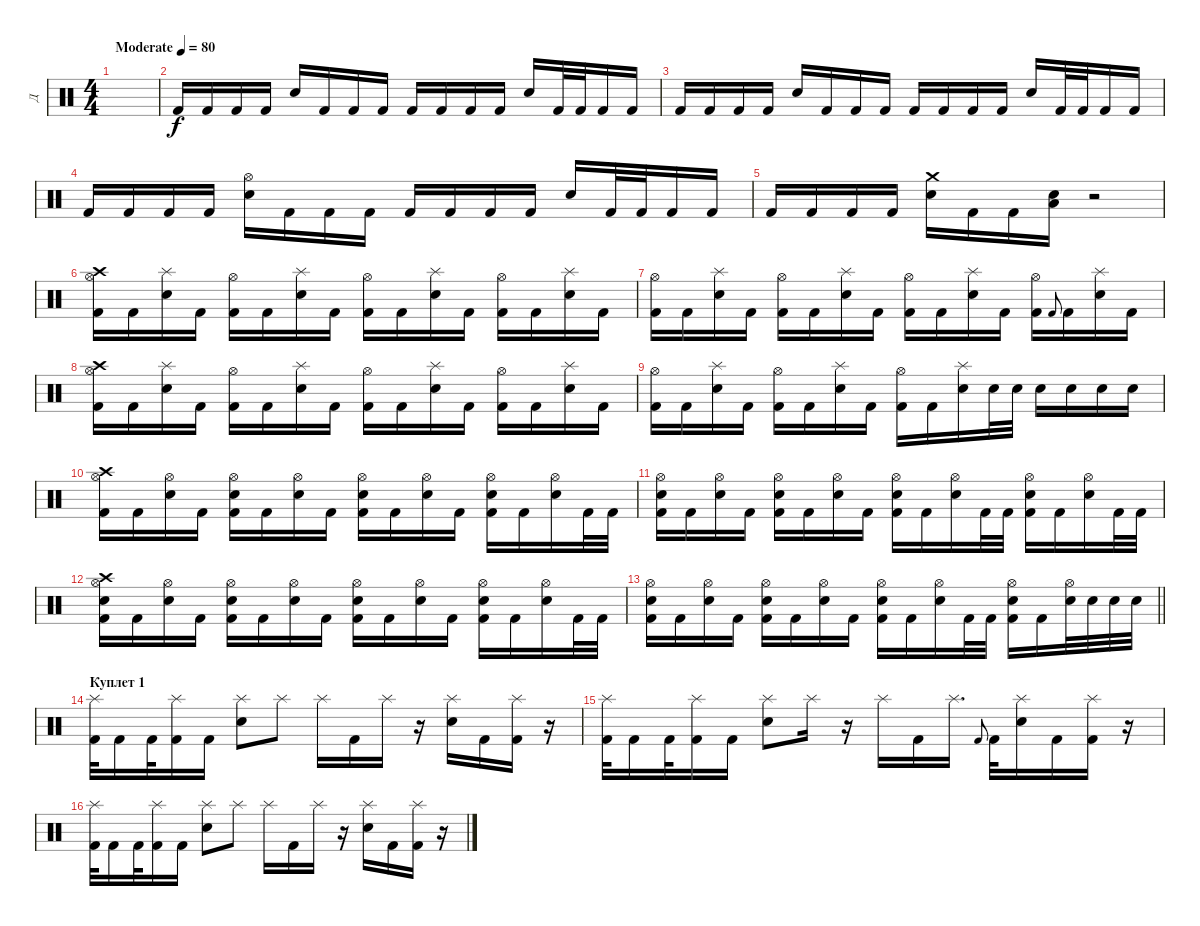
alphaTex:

\track ("Д" "Д") {instrument percussion}
\staff {score}
\articulation defaults
\ts (4 4)
\tempo (80 "Moderate")
\clef neutral
\ks c
|
"Kick (hit) 2".16 "Kick (hit) 2".16 "Kick (hit) 2".16 "Kick (hit) 2".16 "Electric Snare (hit)".16 "Kick (hit) 2".16 "Kick (hit) 2".16 "Kick (hit) 2".16 "Kick (hit) 2".16 "Kick (hit) 2".16 "Kick (hit) 2".16 "Kick (hit) 2".16 "Electric Snare (hit)".16 "Kick (hit) 2".32 "Kick (hit) 2".32 "Kick (hit) 2".16 "Kick (hit) 2".16 |
"Kick (hit) 2".16 "Kick (hit) 2".16 "Kick (hit) 2".16 "Kick (hit) 2".16 "Electric Snare (hit)".16 "Kick (hit) 2".16 "Kick (hit) 2".16 "Kick (hit) 2".16 "Kick (hit) 2".16 "Kick (hit) 2".16 "Kick (hit) 2".16 "Kick (hit) 2".16 "Electric Snare (hit)".16 "Kick (hit) 2".32 "Kick (hit) 2".32 "Kick (hit) 2".16 "Kick (hit) 2".16 |
"Kick (hit) 2".16 "Kick (hit) 2".16 "Kick (hit) 2".16 "Kick (hit) 2".16 ("Hi-Hat (open)" "Electric Snare (hit)").16 "Kick (hit) 2".16 "Kick (hit) 2".16 "Kick (hit) 2".16 "Kick (hit) 2".16 "Kick (hit) 2".16 "Kick (hit) 2".16 "Kick (hit) 2".16 "Electric Snare (hit)".16 "Kick (hit) 2".32 "Kick (hit) 2".32 "Kick (hit) 2".16 "Kick (hit) 2".16 |
"Kick (hit) 2".16 "Kick (hit) 2".16 "Kick (hit) 2".16 "Kick (hit) 2".16 ("Crash medium (hit)" "Electric Snare (hit)").16 "Kick (hit) 2".16 "Kick (hit) 2".16 ("Electric Snare (hit)" "Low Tom (hit)").16 r.2 |
("Crash high (hit)" "Kick (hit) 2" "Hi-Hat (open)").16 "Kick (hit) 2".16 ("Electric Snare (hit)" "Splash (hit)").16 "Kick (hit) 2".16 ("Kick (hit) 2" "Hi-Hat (open)").16 "Kick (hit) 2".16 ("Electric Snare (hit)" "Splash (hit)").16 "Kick (hit) 2".16 ("Kick (hit) 2" "Hi-Hat (open)").16 "Kick (hit) 2".16 ("Electric Snare (hit)" "Splash (hit)").16 "Kick (hit) 2".16 ("Kick (hit) 2" "Hi-Hat (open)").16 "Kick (hit) 2".16 ("Electric Snare (hit)" "Splash (hit)").16 "Kick (hit) 2".16 |
("Kick (hit) 2" "Hi-Hat (open)").16 "Kick (hit) 2".16 ("Electric Snare (hit)" "Splash (hit)").16 "Kick (hit) 2".16 ("Kick (hit) 2" "Hi-Hat (open)").16 "Kick (hit) 2".16 ("Electric Snare (hit)" "Splash (hit)").16 "Kick (hit) 2".16 ("Kick (hit) 2" "Hi-Hat (open)").16 "Kick (hit) 2".16 ("Electric Snare (hit)" "Splash (hit)").16 "Kick (hit) 2".16 ("Kick (hit) 2" "Hi-Hat (open)").16 "Kick (hit) 2".8{gr onbeat} "Kick (hit) 2".16 ("Electric Snare (hit)" "Splash (hit)").16 "Kick (hit) 2".16 |
("Crash high (hit)" "Kick (hit) 2" "Hi-Hat (open)").16 "Kick (hit) 2".16 ("Electric Snare (hit)" "Splash (hit)").16 "Kick (hit) 2".16 ("Kick (hit) 2" "Hi-Hat (open)").16 "Kick (hit) 2".16 ("Electric Snare (hit)" "Splash (hit)").16 "Kick (hit) 2".16 ("Kick (hit) 2" "Hi-Hat (open)").16 "Kick (hit) 2".16 ("Electric Snare (hit)" "Splash (hit)").16 "Kick (hit) 2".16 ("Kick (hit) 2" "Hi-Hat (open)").16 "Kick (hit) 2".16 ("Electric Snare (hit)" "Splash (hit)").16 "Kick (hit) 2".16 |
("Kick (hit) 2" "Hi-Hat (open)").16 "Kick (hit) 2".16 ("Electric Snare (hit)" "Splash (hit)").16 "Kick (hit) 2".16 ("Kick (hit) 2" "Hi-Hat (open)").16 "Kick (hit) 2".16 ("Electric Snare (hit)" "Splash (hit)").16 "Kick (hit) 2".16 ("Kick (hit) 2" "Hi-Hat (open)").16 "Kick (hit) 2".16 ("Electric Snare (hit)" "Splash (hit)").16 "Electric Snare (hit)".32 "Electric Snare (hit)".32 "Electric Snare (hit)".16 "Electric Snare (hit)".16 "Electric Snare (hit)".16 "Electric Snare (hit)".16 |
("Crash high (hit)" "Kick (hit) 2" "Hi-Hat (open)").16 "Kick (hit) 2".16 ("Electric Snare (hit)" "Hi-Hat (open)").16 "Kick (hit) 2".16 ("Electric Snare (hit)" "Kick (hit) 2" "Hi-Hat (open)").16 "Kick (hit) 2".16 ("Electric Snare (hit)" "Hi-Hat (open)").16 "Kick (hit) 2".16 ("Electric Snare (hit)" "Kick (hit) 2" "Hi-Hat (open)").16 "Kick (hit) 2".16 ("Electric Snare (hit)" "Hi-Hat (open)").16 "Kick (hit) 2".16 ("Electric Snare (hit)" "Kick (hit) 2" "Hi-Hat (open)").16 "Kick (hit) 2".16 ("Electric Snare (hit)" "Hi-Hat (open)").16 "Kick (hit) 2".32 "Kick (hit) 2".32 |
("Electric Snare (hit)" "Kick (hit) 2" "Hi-Hat (open)").16 "Kick (hit) 2".16 ("Electric Snare (hit)" "Hi-Hat (open)").16 "Kick (hit) 2".16 ("Electric Snare (hit)" "Kick (hit) 2" "Hi-Hat (open)").16 "Kick (hit) 2".16 ("Electric Snare (hit)" "Hi-Hat (open)").16 "Kick (hit) 2".16 ("Electric Snare (hit)" "Kick (hit) 2" "Hi-Hat (open)").16 "Kick (hit) 2".16 ("Electric Snare (hit)" "Hi-Hat (open)").16 "Kick (hit) 2".32 "Kick (hit) 2".32 ("Electric Snare (hit)" "Kick (hit) 2" "Hi-Hat (open)").16 "Kick (hit) 2".16 ("Electric Snare (hit)" "Hi-Hat (open)").16 "Kick (hit) 2".32 "Kick (hit) 2".32 |
("Crash high (hit)" "Electric Snare (hit)" "Kick (hit) 2" "Hi-Hat (open)").16 "Kick (hit) 2".16 ("Electric Snare (hit)" "Hi-Hat (open)").16 "Kick (hit) 2".16 ("Electric Snare (hit)" "Kick (hit) 2" "Hi-Hat (open)").16 "Kick (hit) 2".16 ("Electric Snare (hit)" "Hi-Hat (open)").16 "Kick (hit) 2".16 ("Electric Snare (hit)" "Kick (hit) 2" "Hi-Hat (open)").16 "Kick (hit) 2".16 ("Electric Snare (hit)" "Hi-Hat (open)").16 "Kick (hit) 2".16 ("Electric Snare (hit)" "Kick (hit) 2" "Hi-Hat (open)").16 "Kick (hit) 2".16 ("Electric Snare (hit)" "Hi-Hat (open)").16 "Kick (hit) 2".32 "Kick (hit) 2".32 |
\barLineRight lightlight
("Electric Snare (hit)" "Kick (hit) 2" "Hi-Hat (open)").16 "Kick (hit) 2".16 ("Electric Snare (hit)" "Hi-Hat (open)").16 "Kick (hit) 2".16 ("Electric Snare (hit)" "Kick (hit) 2" "Hi-Hat (open)").16 "Kick (hit) 2".16 ("Electric Snare (hit)" "Hi-Hat (open)").16 "Kick (hit) 2".16 ("Electric Snare (hit)" "Kick (hit) 2" "Hi-Hat (open)").16 "Kick (hit) 2".16 ("Electric Snare (hit)" "Hi-Hat (open)").16 "Kick (hit) 2".32 "Kick (hit) 2".32 ("Electric Snare (hit)" "Kick (hit) 2" "Hi-Hat (open)").16 "Kick (hit) 2".16 ("Electric Snare (hit)" "Hi-Hat (open)").32 "Electric Snare (hit)".32 "Electric Snare (hit)".32 "Electric Snare (hit)".32 |
\section ("" "Куплет 1")
("Kick (hit) 2" "Splash (hit)").32 "Kick (hit) 2".16 "Kick (hit) 2".32 ("Kick (hit) 2" "Splash (hit)").16 "Kick (hit) 2".16 ("Electric Snare (hit)" "Splash (hit)").8 "Splash (hit)".8 "Splash (hit)".16 "Kick (hit) 2".16 "Splash (hit)".16 r.16 ("Electric Snare (hit)" "Splash (hit)").16 "Kick (hit) 2".16 ("Kick (hit) 2" "Splash (hit)").16 r.16 |
("Kick (hit) 2" "Splash (hit)").32 "Kick (hit) 2".16 "Kick (hit) 2".32 ("Kick (hit) 2" "Splash (hit)").16 "Kick (hit) 2".16 ("Electric Snare (hit)" "Splash (hit)").8 "Splash (hit)".16 r.16 "Splash (hit)".16 "Kick (hit) 2".16 "Splash (hit)".16{d} "Kick (hit) 2".8{gr onbeat} "Kick (hit) 2".32 ("Electric Snare (hit)" "Splash (hit)").16 "Kick (hit) 2".16 ("Kick (hit) 2" "Splash (hit)").16 r.16 |
("Kick (hit) 2" "Splash (hit)").32 "Kick (hit) 2".16 "Kick (hit) 2".32 ("Kick (hit) 2" "Splash (hit)").16 "Kick (hit) 2".16 ("Electric Snare (hit)" "Splash (hit)").8 "Splash (hit)".8 "Splash (hit)".16 "Kick (hit) 2".16 "Splash (hit)".16 r.16 ("Electric Snare (hit)" "Splash (hit)").16 "Kick (hit) 2".16 ("Kick (hit) 2" "Splash (hit)").16 r.16
